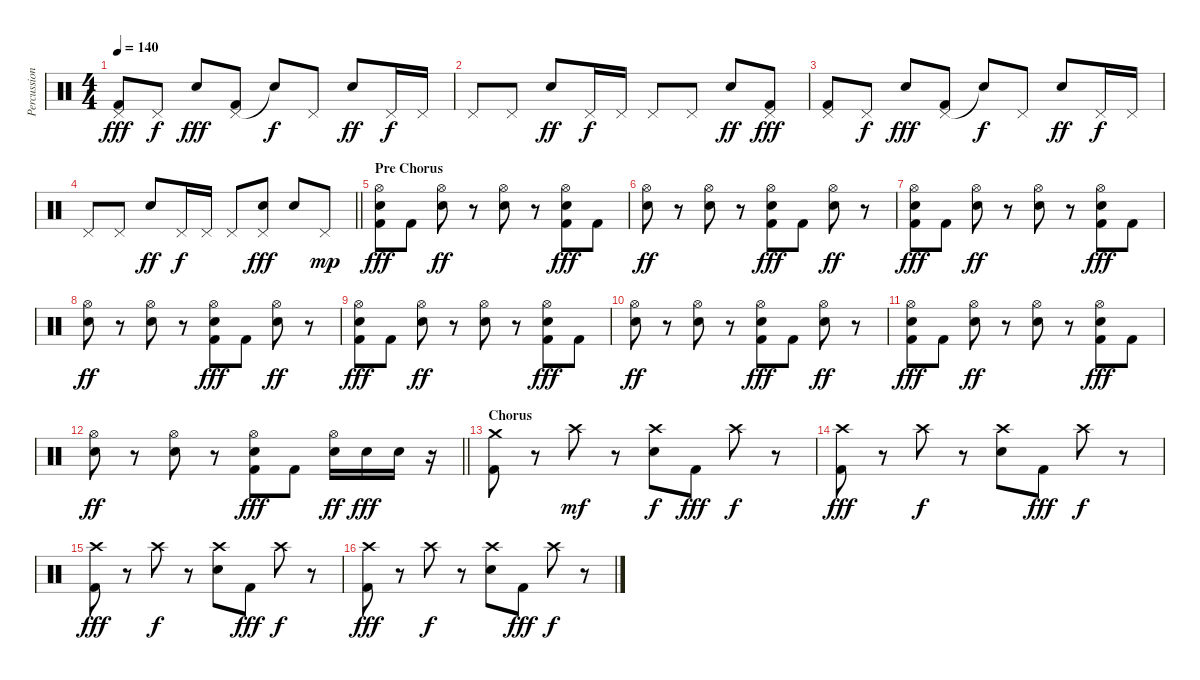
\track ("Percussion" "Percussion") {instrument percussion}
\staff {score}
\articulation defaults
\ts (4 4)
\tempo 140
\clef neutral
\ks c
("Pedal Hi-Hat (hit)" "Kick (hit) 2").8{dy fff} "Pedal Hi-Hat (hit)".8{dy f} "Electric Snare (hit)".8{dy fff} ("Pedal Hi-Hat (hit)" "Kick (hit) 2").8 "Snare (hit)"{t}.8{dy f} "Pedal Hi-Hat (hit)".8 "Electric Snare (hit)".8{dy ff} "Pedal Hi-Hat (hit)".16{dy f} "Pedal Hi-Hat (hit)".16 |
"Pedal Hi-Hat (hit)".8 "Pedal Hi-Hat (hit)".8 "Electric Snare (hit)".8{dy ff} "Pedal Hi-Hat (hit)".16{dy f} "Pedal Hi-Hat (hit)".16 "Pedal Hi-Hat (hit)".8 "Pedal Hi-Hat (hit)".8 "Electric Snare (hit)".8{dy ff} ("Pedal Hi-Hat (hit)" "Kick (hit) 2").8{dy fff} |
("Pedal Hi-Hat (hit)" "Kick (hit) 2").8 "Pedal Hi-Hat (hit)".8{dy f} "Electric Snare (hit)".8{dy fff} ("Pedal Hi-Hat (hit)" "Kick (hit) 2").8 "Snare (hit)"{t}.8{dy f} "Pedal Hi-Hat (hit)".8 "Electric Snare (hit)".8{dy ff} "Pedal Hi-Hat (hit)".16{dy f} "Pedal Hi-Hat (hit)".16 |
\barLineRight lightlight "Pedal Hi-Hat (hit)".8 "Pedal Hi-Hat (hit)".8 "Electric Snare (hit)".8{dy ff} "Pedal Hi-Hat (hit)".16{dy f} "Pedal Hi-Hat (hit)".16 "Pedal Hi-Hat (hit)".8
("Pedal Hi-Hat (hit)" "Electric Snare (hit)").8{dy fff} "Electric Snare (hit)".8 "Pedal Hi-Hat (hit)".8{dy mp} |
\section ("" "Pre Chorus")
("Hi-Hat (open)" "Electric Snare (hit)" "Kick (hit) 2").8{dy fff} "Kick (hit) 2".8 ("Hi-Hat (open)" "Electric Snare (hit)").8{dy ff} r.8 ("Hi-Hat (open)" "Electric Snare (hit)").8 r.8 ("Hi-Hat (open)" "Electric Snare (hit)" "Kick (hit) 2").8{dy fff} "Kick (hit) 2".8 |
("Hi-Hat (open)" "Electric Snare (hit)").8{dy ff} r.8 ("Hi-Hat (open)" "Electric Snare (hit)").8 r.8 ("Hi-Hat (open)" "Electric Snare (hit)" "Kick (hit) 2").8{dy fff} "Kick (hit) 2".8 ("Hi-Hat (open)" "Electric Snare (hit)").8{dy ff} r.8 |
("Hi-Hat (open)" "Electric Snare (hit)" "Kick (hit) 2").8{dy fff} "Kick (hit) 2".8 ("Hi-Hat (open)" "Electric Snare (hit)").8{dy ff} r.8 ("Hi-Hat (open)" "Electric Snare (hit)").8 r.8 ("Hi-Hat (open)" "Electric Snare (hit)" "Kick (hit) 2").8{dy fff} "Kick (hit) 2".8 |
("Hi-Hat (open)" "Electric Snare (hit)").8{dy ff} r.8 ("Hi-Hat (open)" "Electric Snare (hit)").8 r.8 ("Hi-Hat (open)" "Electric Snare (hit)" "Kick (hit) 2").8{dy fff} "Kick (hit) 2".8 ("Hi-Hat (open)" "Electric Snare (hit)").8{dy ff} r.8 |
("Hi-Hat (open)" "Electric Snare (hit)" "Kick (hit) 2").8{dy fff} "Kick (hit) 2".8 ("Hi-Hat (open)" "Electric Snare (hit)").8{dy ff} r.8 ("Hi-Hat (open)" "Electric Snare (hit)").8 r.8 ("Hi-Hat (open)" "Electric Snare (hit)" "Kick (hit) 2").8{dy fff} "Kick (hit) 2".8 |
("Hi-Hat (open)" "Electric Snare (hit)").8{dy ff} r.8 ("Hi-Hat (open)" "Electric Snare (hit)").8 r.8 ("Hi-Hat (open)" "Electric Snare (hit)" "Kick (hit) 2").8{dy fff} "Kick (hit) 2".8 ("Hi-Hat (open)" "Electric Snare (hit)").8{dy ff} r.8 |
("Hi-Hat (open)" "Electric Snare (hit)" "Kick (hit) 2").8{dy fff} "Kick (hit) 2".8 ("Hi-Hat (open)" "Electric Snare (hit)").8{dy ff} r.8 ("Hi-Hat (open)" "Electric Snare (hit)").8 r.8 ("Hi-Hat (open)" "Electric Snare (hit)" "Kick (hit) 2").8{dy fff} "Kick (hit) 2".8 |
\barLineRight lightlight
("Hi-Hat (open)" "Electric Snare (hit)").8{dy ff} r.8 ("Hi-Hat (open)" "Electric Snare (hit)").8 r.8 ("Hi-Hat (open)" "Electric Snare (hit)" "Kick (hit) 2").8{dy fff} "Kick (hit) 2".8 ("Hi-Hat (open)" "Electric Snare (hit)").16{dy ff} "Electric Snare (hit)".16{dy fff} "Electric Snare (hit)".16 r.16 |
\section ("" "Chorus")
("Crash medium (hit)" "Kick (hit) 2").8 r.8 "Crash high (hit)".8{dy mf} r.8 ("Crash high (hit)" "Electric Snare (hit)").8{dy f} "Kick (hit) 2".8{dy fff} "Crash high (hit)".8{dy f} r.8 |
("Crash high (hit)" "Kick (hit) 2").8{dy fff} r.8 "Crash high (hit)".8{dy f} r.8 ("Crash high (hit)" "Electric Snare (hit)").8 "Kick (hit) 2".8{dy fff} "Crash high (hit)".8{dy f} r.8 |
("Crash high (hit)" "Kick (hit) 2").8{dy fff} r.8 "Crash high (hit)".8{dy f} r.8 ("Crash high (hit)" "Electric Snare (hit)").8 "Kick (hit) 2".8{dy fff} "Crash high (hit)".8{dy f} r.8 |
("Crash high (hit)" "Kick (hit) 2").8{dy fff} r.8 "Crash high (hit)".8{dy f} r.8 ("Crash high (hit)" "Electric Snare (hit)").8 "Kick (hit) 2".8{dy fff} "Crash high (hit)".8{dy f} r.8
